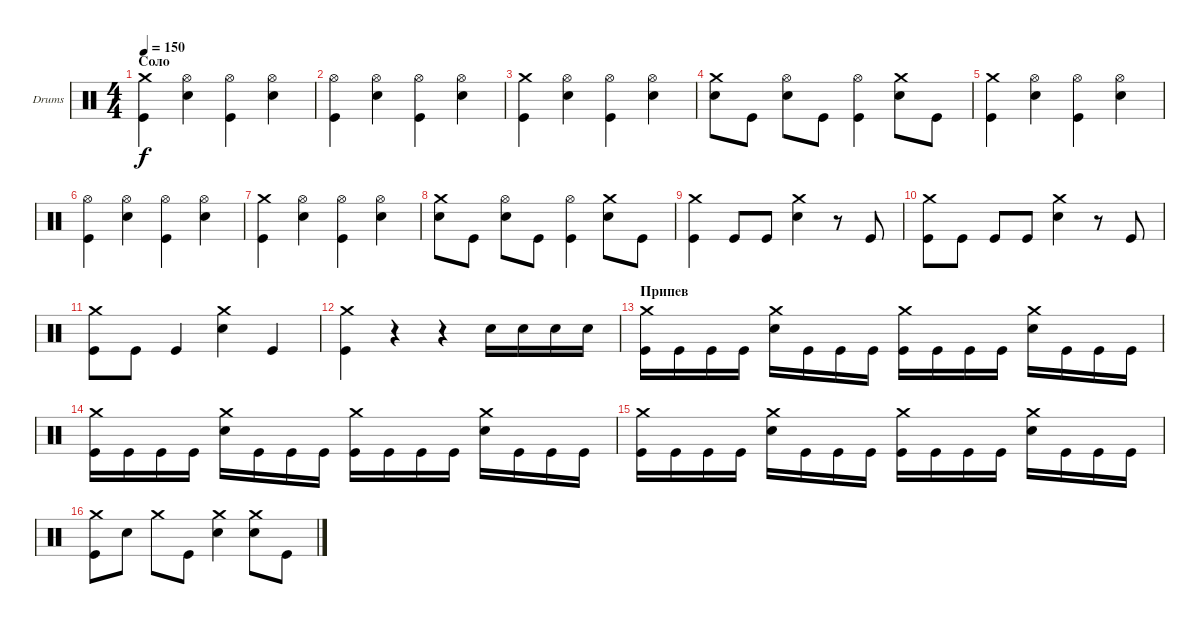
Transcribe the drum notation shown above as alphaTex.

\defaultSystemsLayout 4
\bracketExtendMode groupsimilarinstruments
\firstSystemTrackNameOrientation horizontal
\otherSystemsTrackNameOrientation horizontal
\track ("Drumkit" "Drums") {instrument percussion}
\staff {score}
\articulation defaults
\ts (4 4)
\section ("" "Соло")
\tempo 150
\clef neutral
\ks c
("Kick (hit)" "Crash medium (hit)").4{dy f} ("Hi-Hat (open)" "Snare (hit) 2").4 ("Hi-Hat (open)" "Kick (hit)").4 ("Hi-Hat (open)" "Snare (hit) 2").4 |
("Hi-Hat (open)" "Kick (hit)").4 ("Snare (hit) 2" "Hi-Hat (open)").4 ("Kick (hit)" "Hi-Hat (open)").4 ("Snare (hit) 2" "Hi-Hat (open)").4 |
("Kick (hit)" "Crash medium (hit)").4 ("Hi-Hat (open)" "Snare (hit) 2").4 ("Hi-Hat (open)" "Kick (hit)").4 ("Hi-Hat (open)" "Snare (hit) 2").4 |
("Crash medium (hit)" "Snare (hit) 2").8 "Kick (hit)".8 ("Snare (hit) 2" "Hi-Hat (open)").8 "Kick (hit)".8 ("Kick (hit)" "Hi-Hat (open)").4 ("Snare (hit) 2" "Crash medium (hit)").8 "Kick (hit)".8 |
("Kick (hit)" "Crash medium (hit)").4 ("Hi-Hat (open)" "Snare (hit) 2").4 ("Hi-Hat (open)" "Kick (hit)").4 ("Hi-Hat (open)" "Snare (hit) 2").4 |
("Hi-Hat (open)" "Kick (hit)").4 ("Snare (hit) 2" "Hi-Hat (open)").4 ("Kick (hit)" "Hi-Hat (open)").4 ("Snare (hit) 2" "Hi-Hat (open)").4 |
("Kick (hit)" "Crash medium (hit)").4 ("Hi-Hat (open)" "Snare (hit) 2").4 ("Hi-Hat (open)" "Kick (hit)").4 ("Hi-Hat (open)" "Snare (hit) 2").4 |
("Crash medium (hit)" "Snare (hit) 2").8 "Kick (hit)".8 ("Snare (hit) 2" "Hi-Hat (open)").8 "Kick (hit)".8 ("Kick (hit)" "Hi-Hat (open)").4 ("Snare (hit) 2" "Crash medium (hit)").8 "Kick (hit)".8 |
("Crash medium (hit)" "Kick (hit)").4 "Kick (hit)".8 "Kick (hit)".8 ("Snare (hit) 2" "Crash medium (hit)").4 r.8 "Kick (hit)".8 |
("Kick (hit)" "Crash medium (hit)").8 "Kick (hit)".8 "Kick (hit)".8 "Kick (hit)".8 ("Snare (hit) 2" "Crash medium (hit)").4 r.8 "Kick (hit)".8 |
("Kick (hit)" "Crash medium (hit)").8 "Kick (hit)".8 "Kick (hit)".4 ("Snare (hit) 2" "Crash medium (hit)").4 "Kick (hit)".4 |
("Crash medium (hit)" "Kick (hit)").4 r.4 r.4 "Snare (hit) 2".16 "Snare (hit) 2".16 "Snare (hit) 2".16 "Snare (hit) 2".16 |
\section ("" "Припев")
("Kick (hit)" "Crash medium (hit)").16 "Kick (hit)".16 "Kick (hit)".16 "Kick (hit)".16 ("Snare (hit) 2" "Crash medium (hit)").16 "Kick (hit)".16 "Kick (hit)".16 "Kick (hit)".16 ("Kick (hit)" "Crash medium (hit)").16 "Kick (hit)".16 "Kick (hit)".16 "Kick (hit)".16 ("Snare (hit) 2" "Crash medium (hit)").16 "Kick (hit)".16 "Kick (hit)".16 "Kick (hit)".16 |
("Kick (hit)" "Crash medium (hit)").16 "Kick (hit)".16 "Kick (hit)".16 "Kick (hit)".16 ("Snare (hit) 2" "Crash medium (hit)").16 "Kick (hit)".16 "Kick (hit)".16 "Kick (hit)".16 ("Kick (hit)" "Crash medium (hit)").16 "Kick (hit)".16 "Kick (hit)".16 "Kick (hit)".16 ("Snare (hit) 2" "Crash medium (hit)").16 "Kick (hit)".16 "Kick (hit)".16 "Kick (hit)".16 |
("Kick (hit)" "Crash medium (hit)").16 "Kick (hit)".16 "Kick (hit)".16 "Kick (hit)".16 ("Snare (hit) 2" "Crash medium (hit)").16 "Kick (hit)".16 "Kick (hit)".16 "Kick (hit)".16 ("Kick (hit)" "Crash medium (hit)").16 "Kick (hit)".16 "Kick (hit)".16 "Kick (hit)".16 ("Snare (hit) 2" "Crash medium (hit)").16 "Kick (hit)".16 "Kick (hit)".16 "Kick (hit)".16 |
("Crash medium (hit)" "Kick (hit)").8 "Snare (hit) 2".8 "Crash medium (hit)".8 "Kick (hit)".8 ("Snare (hit) 2" "Crash medium (hit)").4 ("Snare (hit) 2" "Crash medium (hit)").8 "Kick (hit)".8
